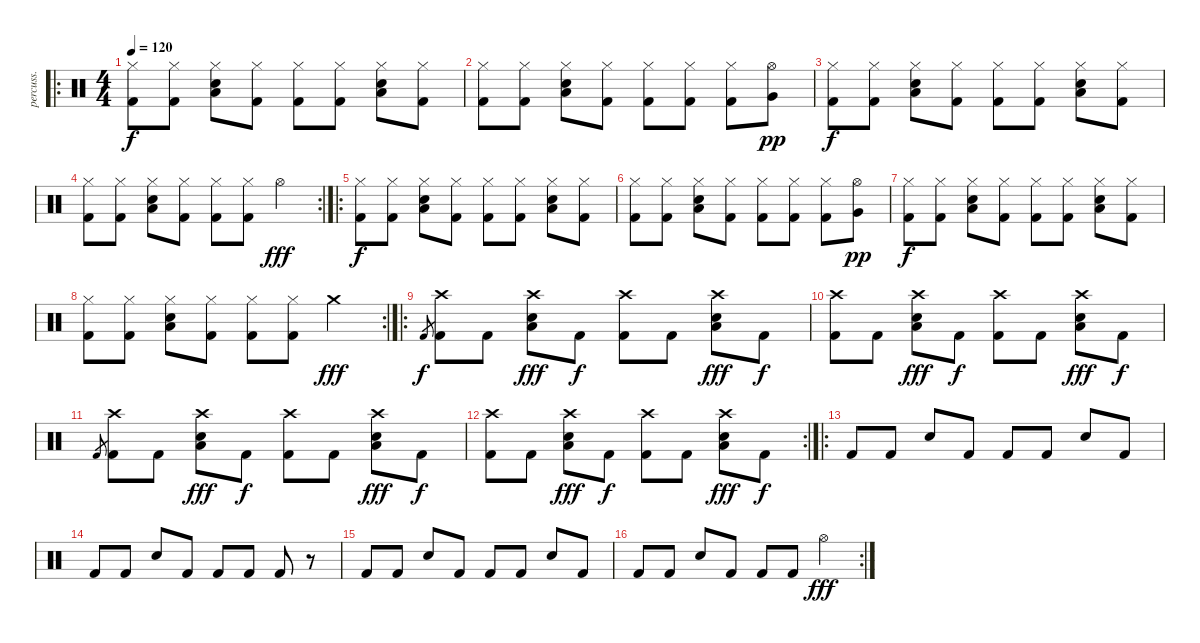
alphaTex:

\track ("percuss." "percuss.") {instrument percussion}
\staff {score}
\articulation defaults
\ro
\ts (4 4)
\tempo 120
\clef neutral
\ks c
("Hi-Hat (closed)" "Kick (hit) 2").8{dy f} ("Hi-Hat (closed)" "Kick (hit) 2").8 ("Hi-Hat (closed)" "Low Floor Tom (hit)" "Electric Snare (hit)").8 ("Hi-Hat (closed)" "Kick (hit) 2").8 ("Hi-Hat (closed)" "Kick (hit) 2").8 ("Hi-Hat (closed)" "Kick (hit) 2").8 ("Hi-Hat (closed)" "Low Floor Tom (hit)" "Electric Snare (hit)").8 ("Hi-Hat (closed)" "Kick (hit) 2").8 |
("Hi-Hat (closed)" "Kick (hit) 2").8 ("Hi-Hat (closed)" "Kick (hit) 2").8 ("Hi-Hat (closed)" "Low Floor Tom (hit)" "Electric Snare (hit)").8 ("Hi-Hat (closed)" "Kick (hit) 2").8 ("Hi-Hat (closed)" "Kick (hit) 2").8 ("Hi-Hat (closed)" "Kick (hit) 2").8 ("Hi-Hat (closed)" "Kick (hit) 2").8 ("Hi-Hat (open)" "Very Low Tom (hit)").8{dy pp} |
("Hi-Hat (closed)" "Kick (hit) 2").8{dy f} ("Hi-Hat (closed)" "Kick (hit) 2").8 ("Hi-Hat (closed)" "Low Floor Tom (hit)" "Electric Snare (hit)").8 ("Hi-Hat (closed)" "Kick (hit) 2").8 ("Hi-Hat (closed)" "Kick (hit) 2").8 ("Hi-Hat (closed)" "Kick (hit) 2").8 ("Hi-Hat (closed)" "Low Floor Tom (hit)" "Electric Snare (hit)").8 ("Hi-Hat (closed)" "Kick (hit) 2").8 |
\rc 2
("Hi-Hat (closed)" "Kick (hit) 2").8 ("Hi-Hat (closed)" "Kick (hit) 2").8 ("Hi-Hat (closed)" "Low Floor Tom (hit)" "Electric Snare (hit)").8 ("Hi-Hat (closed)" "Kick (hit) 2").8 ("Hi-Hat (closed)" "Kick (hit) 2").8 ("Hi-Hat (closed)" "Kick (hit) 2").8 "Hi-Hat (open)".4{dy fff} |
\ro
("Hi-Hat (closed)" "Kick (hit) 2").8{dy f} ("Hi-Hat (closed)" "Kick (hit) 2").8 ("Hi-Hat (closed)" "Low Floor Tom (hit)" "Electric Snare (hit)").8 ("Hi-Hat (closed)" "Kick (hit) 2").8 ("Hi-Hat (closed)" "Kick (hit) 2").8 ("Hi-Hat (closed)" "Kick (hit) 2").8 ("Hi-Hat (closed)" "Low Floor Tom (hit)" "Electric Snare (hit)").8 ("Hi-Hat (closed)" "Kick (hit) 2").8 |
("Hi-Hat (closed)" "Kick (hit) 2").8 ("Hi-Hat (closed)" "Kick (hit) 2").8 ("Hi-Hat (closed)" "Low Floor Tom (hit)" "Electric Snare (hit)").8 ("Hi-Hat (closed)" "Kick (hit) 2").8 ("Hi-Hat (closed)" "Kick (hit) 2").8 ("Hi-Hat (closed)" "Kick (hit) 2").8 ("Hi-Hat (closed)" "Kick (hit) 2").8 ("Hi-Hat (open)" "Very Low Tom (hit)").8{dy pp} |
("Hi-Hat (closed)" "Kick (hit) 2").8{dy f} ("Hi-Hat (closed)" "Kick (hit) 2").8 ("Hi-Hat (closed)" "Low Floor Tom (hit)" "Electric Snare (hit)").8 ("Hi-Hat (closed)" "Kick (hit) 2").8 ("Hi-Hat (closed)" "Kick (hit) 2").8 ("Hi-Hat (closed)" "Kick (hit) 2").8 ("Hi-Hat (closed)" "Low Floor Tom (hit)" "Electric Snare (hit)").8 ("Hi-Hat (closed)" "Kick (hit) 2").8 |
\rc 2
("Hi-Hat (closed)" "Kick (hit) 2").8 ("Hi-Hat (closed)" "Kick (hit) 2").8 ("Hi-Hat (closed)" "Low Floor Tom (hit)" "Electric Snare (hit)").8 ("Hi-Hat (closed)" "Kick (hit) 2").8 ("Hi-Hat (closed)" "Kick (hit) 2").8 ("Hi-Hat (closed)" "Kick (hit) 2").8 "Crash medium (hit)".4{dy fff} |
\ro "Kick (hit) 2".8{gr dy f}
("Crash high (hit)" "Kick (hit) 2").8 "Kick (hit) 2".8 ("Crash high (hit)" "Low Floor Tom (hit)" "Electric Snare (hit)").8{dy fff} "Kick (hit) 2".8{dy f} ("Crash high (hit)" "Kick (hit) 2").8 "Kick (hit) 2".8 ("Crash high (hit)" "Low Floor Tom (hit)" "Electric Snare (hit)").8{dy fff} "Kick (hit) 2".8{dy f} |
("Crash high (hit)" "Kick (hit) 2").8 "Kick (hit) 2".8 ("Crash high (hit)" "Low Floor Tom (hit)" "Electric Snare (hit)").8{dy fff} "Kick (hit) 2".8{dy f} ("Crash high (hit)" "Kick (hit) 2").8 "Kick (hit) 2".8 ("Crash high (hit)" "Low Floor Tom (hit)" "Electric Snare (hit)").8{dy fff} "Kick (hit) 2".8{dy f} |
"Kick (hit) 2".8{gr} ("Crash high (hit)" "Kick (hit) 2").8 "Kick (hit) 2".8 ("Crash high (hit)" "Low Floor Tom (hit)" "Electric Snare (hit)").8{dy fff} "Kick (hit) 2".8{dy f} ("Crash high (hit)" "Kick (hit) 2").8 "Kick (hit) 2".8 ("Crash high (hit)" "Low Floor Tom (hit)" "Electric Snare (hit)").8{dy fff} "Kick (hit) 2".8{dy f} |
\rc 2
("Crash high (hit)" "Kick (hit) 2").8 "Kick (hit) 2".8 ("Crash high (hit)" "Low Floor Tom (hit)" "Electric Snare (hit)").8{dy fff} "Kick (hit) 2".8{dy f} ("Crash high (hit)" "Kick (hit) 2").8 "Kick (hit) 2".8 ("Crash high (hit)" "Low Floor Tom (hit)" "Electric Snare (hit)").8{dy fff} "Kick (hit) 2".8{dy f} |
\ro "Kick (hit) 2".8 "Kick (hit) 2".8 "Electric Snare (hit)".8 "Kick (hit) 2".8 "Kick (hit) 2".8 "Kick (hit) 2".8 "Electric Snare (hit)".8 "Kick (hit) 2".8
|
"Kick (hit) 2".8 "Kick (hit) 2".8 "Electric Snare (hit)".8 "Kick (hit) 2".8 "Kick (hit) 2".8 "Kick (hit) 2".8 "Kick (hit) 2".8 r.8 |
"Kick (hit) 2".8 "Kick (hit) 2".8 "Electric Snare (hit)".8 "Kick (hit) 2".8 "Kick (hit) 2".8 "Kick (hit) 2".8 "Electric Snare (hit)".8 "Kick (hit) 2".8 |
\rc 2 "Kick (hit) 2".8 "Kick (hit) 2".8 "Electric Snare (hit)".8 "Kick (hit) 2".8 "Kick (hit) 2".8 "Kick (hit) 2".8 "Hi-Hat (open)".4{dy fff}
